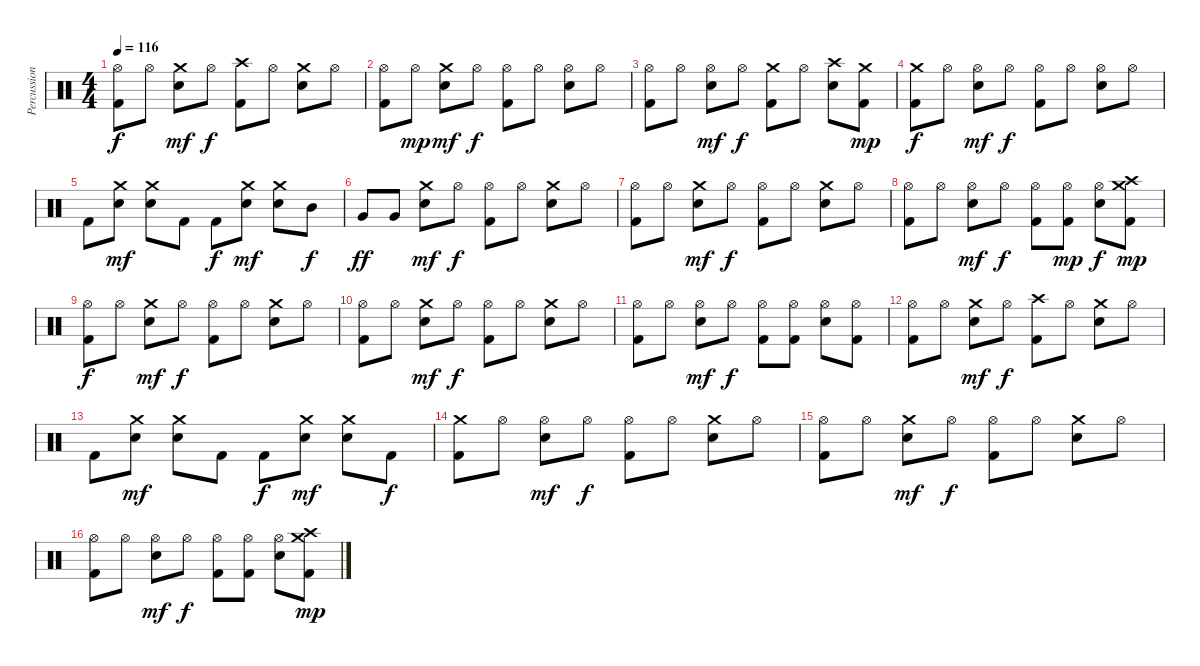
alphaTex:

\track ("Percussion" "Percussion") {instrument percussion}
\staff {score}
\articulation defaults
\ts (4 4)
\tempo 116
\clef neutral
\ks c
("Kick (hit) 2" "Hi-Hat (open)").8{dy f} "Hi-Hat (open)".8 ("Snare (hit) 2" "Crash medium (hit)").8{dy mf} "Hi-Hat (open)".8{dy f} ("Kick (hit) 2" "Crash high (hit)").8 "Hi-Hat (open)".8 ("Snare (hit) 2" "Crash medium (hit)").8 "Hi-Hat (open)".8 |
("Kick (hit) 2" "Hi-Hat (open)").8 "Hi-Hat (open)".8{dy mp} ("Snare (hit) 2" "Crash medium (hit)").8{dy mf} "Hi-Hat (open)".8{dy f} ("Kick (hit) 2" "Hi-Hat (open)").8 "Hi-Hat (open)".8 ("Snare (hit) 2" "Hi-Hat (open)").8 "Hi-Hat (open)".8 |
("Kick (hit) 2" "Hi-Hat (open)").8 "Hi-Hat (open)".8 ("Snare (hit) 2" "Hi-Hat (open)").8{dy mf} "Hi-Hat (open)".8{dy f} ("Kick (hit) 2" "Crash medium (hit)").8 "Hi-Hat (open)".8 ("Snare (hit) 2" "Crash high (hit)").8 ("Kick (hit) 2" "Crash medium (hit)").8{dy mp} |
("Kick (hit) 2" "Crash medium (hit)").8{dy f} "Hi-Hat (open)".8 ("Snare (hit) 2" "Hi-Hat (open)").8{dy mf} "Hi-Hat (open)".8{dy f} ("Kick (hit) 2" "Hi-Hat (open)").8 "Hi-Hat (open)".8 ("Snare (hit) 2" "Hi-Hat (open)").8 "Hi-Hat (open)".8 |
"Kick (hit) 2".8 ("Snare (hit) 2" "Crash medium (hit)").8{dy mf} ("Snare (hit) 2" "Crash medium (hit)").8 "Kick (hit) 2".8 "Kick (hit) 2".8{dy f} ("Snare (hit) 2" "Crash medium (hit)").8{dy mf} ("Snare (hit) 2" "Crash medium (hit)").8 "Mid Tom (hit)".8{dy f} |
"Very Low Tom (hit)".8{dy ff} "Very Low Tom (hit)".8 ("Snare (hit) 2" "Crash medium (hit)").8{dy mf} "Hi-Hat (open)".8{dy f} ("Kick (hit) 2" "Hi-Hat (open)").8 "Hi-Hat (open)".8 ("Snare (hit) 2" "Crash medium (hit)").8 "Hi-Hat (open)".8 |
("Kick (hit) 2" "Hi-Hat (open)").8 "Hi-Hat (open)".8 ("Snare (hit) 2" "Crash medium (hit)").8{dy mf} "Hi-Hat (open)".8{dy f} ("Kick (hit) 2" "Hi-Hat (open)").8 "Hi-Hat (open)".8 ("Snare (hit) 2" "Crash medium (hit)").8 "Hi-Hat (open)".8 |
("Kick (hit) 2" "Hi-Hat (open)").8 "Hi-Hat (open)".8 ("Snare (hit) 2" "Hi-Hat (open)").8{dy mf} "Hi-Hat (open)".8{dy f} ("Kick (hit) 2" "Hi-Hat (open)").8 ("Kick (hit) 2" "Hi-Hat (open)").8{dy mp} ("Snare (hit) 2" "Hi-Hat (open)").8{dy f} ("Kick (hit) 2" "Crash high (hit)" "Crash medium (hit)").8{dy mp} |
("Kick (hit) 2" "Hi-Hat (open)").8{dy f} "Hi-Hat (open)".8 ("Snare (hit) 2" "Crash medium (hit)").8{dy mf} "Hi-Hat (open)".8{dy f} ("Kick (hit) 2" "Hi-Hat (open)").8 "Hi-Hat (open)".8 ("Snare (hit) 2" "Crash medium (hit)").8 "Hi-Hat (open)".8 |
("Kick (hit) 2" "Hi-Hat (open)").8 "Hi-Hat (open)".8 ("Snare (hit) 2" "Crash medium (hit)").8{dy mf} "Hi-Hat (open)".8{dy f} ("Kick (hit) 2" "Hi-Hat (open)").8 "Hi-Hat (open)".8 ("Snare (hit) 2" "Crash medium (hit)").8 "Hi-Hat (open)".8 |
("Kick (hit) 2" "Hi-Hat (open)").8 "Hi-Hat (open)".8 ("Snare (hit) 2" "Hi-Hat (open)").8{dy mf} "Hi-Hat (open)".8{dy f} ("Kick (hit) 2" "Hi-Hat (open)").8 ("Kick (hit) 2" "Hi-Hat (open)").8 ("Snare (hit) 2" "Hi-Hat (open)").8 ("Kick (hit) 2" "Hi-Hat (open)").8 |
("Kick (hit) 2" "Hi-Hat (open)").8 "Hi-Hat (open)".8 ("Snare (hit) 2" "Crash medium (hit)").8{dy mf} "Hi-Hat (open)".8{dy f} ("Kick (hit) 2" "Crash high (hit)").8 "Hi-Hat (open)".8 ("Snare (hit) 2" "Crash medium (hit)").8 "Hi-Hat (open)".8 |
"Kick (hit) 2".8 ("Snare (hit) 2" "Crash medium (hit)").8{dy mf} ("Snare (hit) 2" "Crash medium (hit)").8 "Kick (hit) 2".8 "Kick (hit) 2".8{dy f} ("Snare (hit) 2" "Crash medium (hit)").8{dy mf} ("Snare (hit) 2" "Crash medium (hit)").8 "Kick (hit) 2".8{dy f} |
("Kick (hit) 2" "Crash medium (hit)").8 "Hi-Hat (open)".8 ("Snare (hit) 2" "Hi-Hat (open)").8{dy mf} "Hi-Hat (open)".8{dy f} ("Kick (hit) 2" "Hi-Hat (open)").8 "Hi-Hat (open)".8 ("Snare (hit) 2" "Crash medium (hit)").8 "Hi-Hat (open)".8 |
("Kick (hit) 2" "Hi-Hat (open)").8 "Hi-Hat (open)".8 ("Snare (hit) 2" "Crash medium (hit)").8{dy mf} "Hi-Hat (open)".8{dy f} ("Kick (hit) 2" "Hi-Hat (open)").8 "Hi-Hat (open)".8 ("Snare (hit) 2" "Crash medium (hit)").8 "Hi-Hat (open)".8 |
("Kick (hit) 2" "Hi-Hat (open)").8 "Hi-Hat (open)".8 ("Snare (hit) 2" "Hi-Hat (open)").8{dy mf} "Hi-Hat (open)".8{dy f} ("Kick (hit) 2" "Hi-Hat (open)").8 ("Kick (hit) 2" "Hi-Hat (open)").8 ("Snare (hit) 2" "Hi-Hat (open)").8 ("Kick (hit) 2" "Crash high (hit)" "Crash medium (hit)").8{dy mp}
